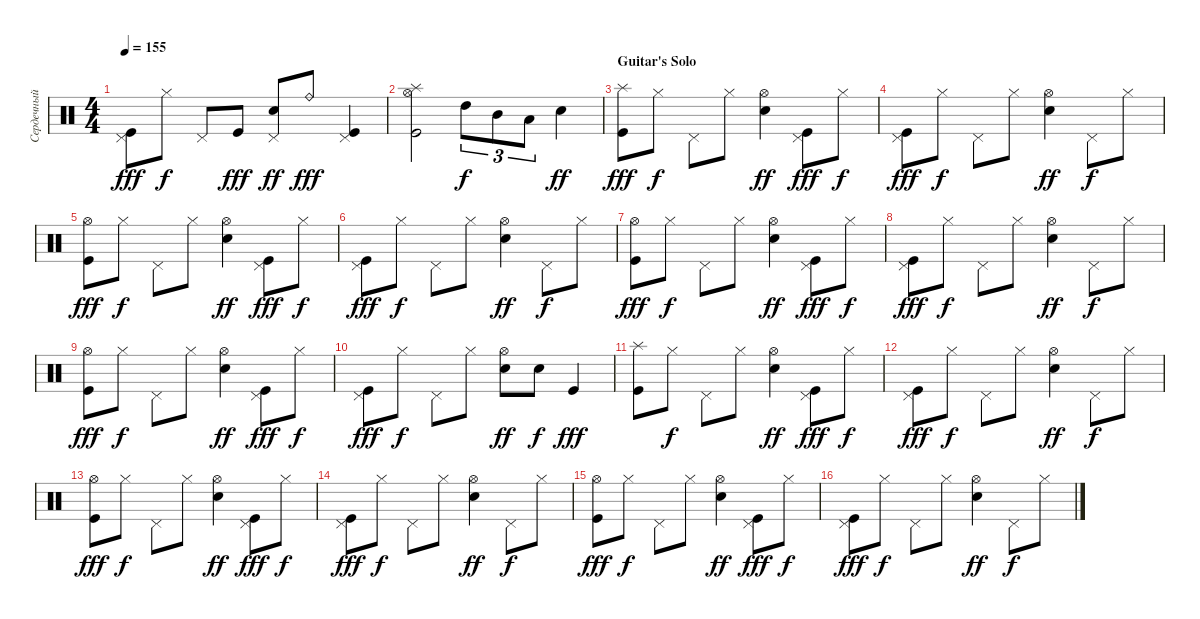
\track ("Сердечный (Ударные)" "Сердечный ") {instrument percussion}
\staff {score}
\articulation defaults
\ts (4 4)
\tempo 155
\clef neutral
\ks c
("Kick (hit)" "Pedal Hi-Hat (hit)").8{dy fff} "Hi-Hat (closed)".8{dy f} "Pedal Hi-Hat (hit)".8 "Kick (hit)".8{dy fff} ("Electric Snare (hit)" "Pedal Hi-Hat (hit)").8{dy ff} "Ride (bell)".8{dy fff} ("Kick (hit)" "Pedal Hi-Hat (hit)").4 |
("Hi-Hat (open)" "Splash (hit)" "Kick (hit)").2 "High Tom (hit)".8{tu (3 2) dy f} "Mid Tom (hit)".8{tu (3 2)} "Low Tom (hit)".8{tu (3 2)} "Electric Snare (hit)".4{dy ff} |
\section ("" "Guitar's Solo")
("Splash (hit)" "Kick (hit)").8{dy fff} "Hi-Hat (closed)".8{dy f} "Pedal Hi-Hat (hit)".8 "Hi-Hat (closed)".8 ("Hi-Hat (open)" "Electric Snare (hit)").4{dy ff} ("Kick (hit)" "Pedal Hi-Hat (hit)").8{dy fff} "Hi-Hat (closed)".8{dy f} |
("Kick (hit)" "Pedal Hi-Hat (hit)").8{dy fff} "Hi-Hat (closed)".8{dy f} "Pedal Hi-Hat (hit)".8 "Hi-Hat (closed)".8 ("Hi-Hat (open)" "Electric Snare (hit)").4{dy ff} "Pedal Hi-Hat (hit)".8{dy f} "Hi-Hat (closed)".8 |
("Hi-Hat (open)" "Kick (hit)").8{dy fff} "Hi-Hat (closed)".8{dy f} "Pedal Hi-Hat (hit)".8 "Hi-Hat (closed)".8 ("Hi-Hat (open)" "Electric Snare (hit)").4{dy ff} ("Kick (hit)" "Pedal Hi-Hat (hit)").8{dy fff} "Hi-Hat (closed)".8{dy f} |
("Kick (hit)" "Pedal Hi-Hat (hit)").8{dy fff} "Hi-Hat (closed)".8{dy f} "Pedal Hi-Hat (hit)".8 "Hi-Hat (closed)".8 ("Hi-Hat (open)" "Electric Snare (hit)").4{dy ff} "Pedal Hi-Hat (hit)".8{dy f} "Hi-Hat (closed)".8 |
("Hi-Hat (open)" "Kick (hit)").8{dy fff} "Hi-Hat (closed)".8{dy f} "Pedal Hi-Hat (hit)".8 "Hi-Hat (closed)".8 ("Hi-Hat (open)" "Electric Snare (hit)").4{dy ff} ("Kick (hit)" "Pedal Hi-Hat (hit)").8{dy fff} "Hi-Hat (closed)".8{dy f} |
("Kick (hit)" "Pedal Hi-Hat (hit)").8{dy fff} "Hi-Hat (closed)".8{dy f} "Pedal Hi-Hat (hit)".8 "Hi-Hat (closed)".8 ("Hi-Hat (open)" "Electric Snare (hit)").4{dy ff} "Pedal Hi-Hat (hit)".8{dy f} "Hi-Hat (closed)".8 |
("Hi-Hat (open)" "Kick (hit)").8{dy fff} "Hi-Hat (closed)".8{dy f} "Pedal Hi-Hat (hit)".8 "Hi-Hat (closed)".8 ("Hi-Hat (open)" "Electric Snare (hit)").4{dy ff} ("Kick (hit)" "Pedal Hi-Hat (hit)").8{dy fff} "Hi-Hat (closed)".8{dy f} |
("Kick (hit)" "Pedal Hi-Hat (hit)").8{dy fff} "Hi-Hat (closed)".8{dy f} "Pedal Hi-Hat (hit)".8 "Hi-Hat (closed)".8 ("Hi-Hat (open)" "Electric Snare (hit)").8{dy ff} "Electric Snare (hit)".8{dy f} "Kick (hit)".4{dy fff} |
("Splash (hit)" "Kick (hit)").8 "Hi-Hat (closed)".8{dy f} "Pedal Hi-Hat (hit)".8 "Hi-Hat (closed)".8 ("Hi-Hat (open)" "Electric Snare (hit)").4{dy ff} ("Kick (hit)" "Pedal Hi-Hat (hit)").8{dy fff} "Hi-Hat (closed)".8{dy f} |
("Kick (hit)" "Pedal Hi-Hat (hit)").8{dy fff} "Hi-Hat (closed)".8{dy f} "Pedal Hi-Hat (hit)".8 "Hi-Hat (closed)".8 ("Hi-Hat (open)" "Electric Snare (hit)").4{dy ff} "Pedal Hi-Hat (hit)".8{dy f} "Hi-Hat (closed)".8 |
("Hi-Hat (open)" "Kick (hit)").8{dy fff} "Hi-Hat (closed)".8{dy f} "Pedal Hi-Hat (hit)".8 "Hi-Hat (closed)".8 ("Hi-Hat (open)" "Electric Snare (hit)").4{dy ff} ("Kick (hit)" "Pedal Hi-Hat (hit)").8{dy fff} "Hi-Hat (closed)".8{dy f} |
("Kick (hit)" "Pedal Hi-Hat (hit)").8{dy fff} "Hi-Hat (closed)".8{dy f} "Pedal Hi-Hat (hit)".8 "Hi-Hat (closed)".8 ("Hi-Hat (open)" "Electric Snare (hit)").4{dy ff} "Pedal Hi-Hat (hit)".8{dy f} "Hi-Hat (closed)".8 |
("Hi-Hat (open)" "Kick (hit)").8{dy fff} "Hi-Hat (closed)".8{dy f} "Pedal Hi-Hat (hit)".8 "Hi-Hat (closed)".8 ("Hi-Hat (open)" "Electric Snare (hit)").4{dy ff} ("Kick (hit)" "Pedal Hi-Hat (hit)").8{dy fff} "Hi-Hat (closed)".8{dy f} |
("Kick (hit)" "Pedal Hi-Hat (hit)").8{dy fff} "Hi-Hat (closed)".8{dy f} "Pedal Hi-Hat (hit)".8 "Hi-Hat (closed)".8 ("Hi-Hat (open)" "Electric Snare (hit)").4{dy ff} "Pedal Hi-Hat (hit)".8{dy f} "Hi-Hat (closed)".8
